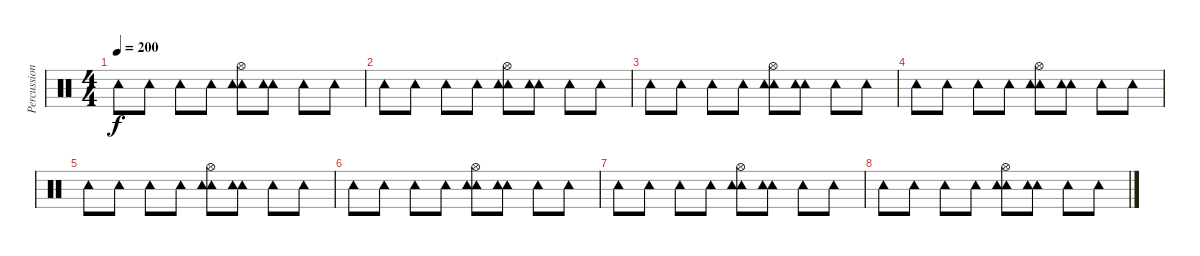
\track ("Percussion" "Percussion") {instrument percussion}
\staff {score}
\articulation defaults
\ts (4 4)
\tempo 200
\clef neutral
\ks c "Tambourine (hit)".8{dy f} "Tambourine (hit)".8 "Tambourine (hit)".8 "Tambourine (hit)".8
("Tambourine (hit)" "Tambourine (hit)" "Hi-Hat (open)").8 ("Tambourine (hit)" "Tambourine (hit)").8 "Tambourine (hit)".8 "Tambourine (hit)".8 |
"Tambourine (hit)".8 "Tambourine (hit)".8 "Tambourine (hit)".8 "Tambourine (hit)".8 ("Tambourine (hit)" "Tambourine (hit)" "Hi-Hat (open)").8 ("Tambourine (hit)" "Tambourine (hit)").8 "Tambourine (hit)".8 "Tambourine (hit)".8 |
"Tambourine (hit)".8 "Tambourine (hit)".8 "Tambourine (hit)".8 "Tambourine (hit)".8 ("Tambourine (hit)" "Tambourine (hit)" "Hi-Hat (open)").8 ("Tambourine (hit)" "Tambourine (hit)").8 "Tambourine (hit)".8 "Tambourine (hit)".8 |
"Tambourine (hit)".8 "Tambourine (hit)".8 "Tambourine (hit)".8 "Tambourine (hit)".8 ("Tambourine (hit)" "Tambourine (hit)" "Hi-Hat (open)").8 ("Tambourine (hit)" "Tambourine (hit)").8 "Tambourine (hit)".8 "Tambourine (hit)".8 |
"Tambourine (hit)".8 "Tambourine (hit)".8 "Tambourine (hit)".8 "Tambourine (hit)".8 ("Tambourine (hit)" "Tambourine (hit)" "Hi-Hat (open)").8 ("Tambourine (hit)" "Tambourine (hit)").8 "Tambourine (hit)".8 "Tambourine (hit)".8 |
"Tambourine (hit)".8 "Tambourine (hit)".8 "Tambourine (hit)".8 "Tambourine (hit)".8 ("Tambourine (hit)" "Tambourine (hit)" "Hi-Hat (open)").8 ("Tambourine (hit)" "Tambourine (hit)").8 "Tambourine (hit)".8 "Tambourine (hit)".8 |
"Tambourine (hit)".8 "Tambourine (hit)".8 "Tambourine (hit)".8 "Tambourine (hit)".8 ("Tambourine (hit)" "Tambourine (hit)" "Hi-Hat (open)").8 ("Tambourine (hit)" "Tambourine (hit)").8 "Tambourine (hit)".8 "Tambourine (hit)".8 |
"Tambourine (hit)".8 "Tambourine (hit)".8 "Tambourine (hit)".8 "Tambourine (hit)".8 ("Tambourine (hit)" "Tambourine (hit)" "Hi-Hat (open)").8 ("Tambourine (hit)" "Tambourine (hit)").8 "Tambourine (hit)".8 "Tambourine (hit)".8
